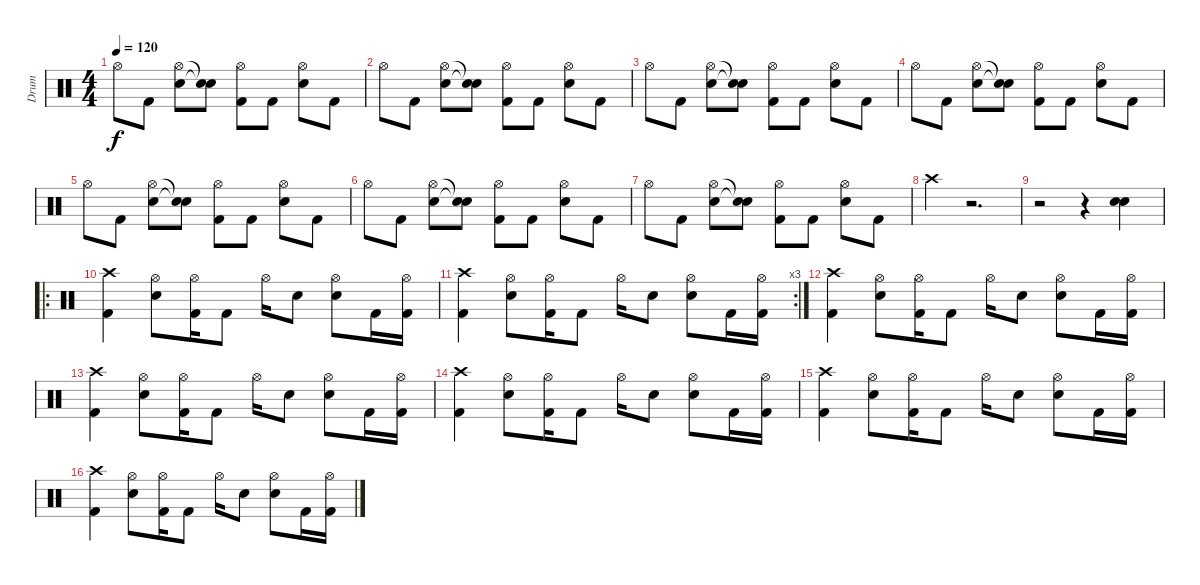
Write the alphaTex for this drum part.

\track ("Drum" "Drum") {instrument percussion}
\staff {score}
\articulation defaults
\ts (4 4)
\tempo 120
\clef neutral
\ks c "Hi-Hat (open)".8{dy f} "Kick (hit) 2".8
("Hi-Hat (open)" "Electric Snare (hit)").8 ("Snare (hit)"{t} "Snare (hit)"{t}).8 ("Hi-Hat (open)" "Kick (hit) 2").8 "Kick (hit) 2".8 ("Hi-Hat (open)" "Electric Snare (hit)").8 "Kick (hit) 2".8 |
"Hi-Hat (open)".8 "Kick (hit) 2".8 ("Hi-Hat (open)" "Electric Snare (hit)").8 ("Snare (hit)"{t} "Snare (hit)"{t}).8 ("Hi-Hat (open)" "Kick (hit) 2").8 "Kick (hit) 2".8 ("Hi-Hat (open)" "Electric Snare (hit)").8 "Kick (hit) 2".8 |
"Hi-Hat (open)".8 "Kick (hit) 2".8 ("Hi-Hat (open)" "Electric Snare (hit)").8 ("Snare (hit)"{t} "Snare (hit)"{t}).8 ("Hi-Hat (open)" "Kick (hit) 2").8 "Kick (hit) 2".8 ("Hi-Hat (open)" "Electric Snare (hit)").8 "Kick (hit) 2".8 |
"Hi-Hat (open)".8 "Kick (hit) 2".8 ("Hi-Hat (open)" "Electric Snare (hit)").8 ("Snare (hit)"{t} "Snare (hit)"{t}).8 ("Hi-Hat (open)" "Kick (hit) 2").8 "Kick (hit) 2".8 ("Hi-Hat (open)" "Electric Snare (hit)").8 "Kick (hit) 2".8 |
"Hi-Hat (open)".8 "Kick (hit) 2".8 ("Hi-Hat (open)" "Electric Snare (hit)").8 ("Snare (hit)"{t} "Snare (hit)"{t}).8 ("Hi-Hat (open)" "Kick (hit) 2").8 "Kick (hit) 2".8 ("Hi-Hat (open)" "Electric Snare (hit)").8 "Kick (hit) 2".8 |
"Hi-Hat (open)".8 "Kick (hit) 2".8 ("Hi-Hat (open)" "Electric Snare (hit)").8 ("Snare (hit)"{t} "Snare (hit)"{t}).8 ("Hi-Hat (open)" "Kick (hit) 2").8 "Kick (hit) 2".8 ("Hi-Hat (open)" "Electric Snare (hit)").8 "Kick (hit) 2".8 |
"Hi-Hat (open)".8 "Kick (hit) 2".8 ("Hi-Hat (open)" "Electric Snare (hit)").8 ("Snare (hit)"{t} "Snare (hit)"{t}).8 ("Hi-Hat (open)" "Kick (hit) 2").8 "Kick (hit) 2".8 ("Hi-Hat (open)" "Electric Snare (hit)").8 "Kick (hit) 2".8 |
"Crash high (hit)".4 r.2{d} |
r.2 r.4 ("Electric Snare (hit)" "Electric Snare (hit)").4 |
\ro
("Crash high (hit)" "Kick (hit) 2").4 ("Hi-Hat (open)" "Electric Snare (hit)").8 ("Hi-Hat (open)" "Kick (hit) 2").16 "Kick (hit) 2".8 "Hi-Hat (open)".16 "Electric Snare (hit)".8 ("Hi-Hat (open)" "Electric Snare (hit)").8 "Kick (hit) 2".16 ("Hi-Hat (open)" "Kick (hit) 2").16 |
\rc 3
("Crash high (hit)" "Kick (hit) 2").4 ("Hi-Hat (open)" "Electric Snare (hit)").8 ("Hi-Hat (open)" "Kick (hit) 2").16 "Kick (hit) 2".8 "Hi-Hat (open)".16 "Electric Snare (hit)".8 ("Hi-Hat (open)" "Electric Snare (hit)").8 "Kick (hit) 2".16 ("Hi-Hat (open)" "Kick (hit) 2").16 |
("Crash high (hit)" "Kick (hit) 2").4 ("Hi-Hat (open)" "Electric Snare (hit)").8 ("Hi-Hat (open)" "Kick (hit) 2").16 "Kick (hit) 2".8 "Hi-Hat (open)".16 "Electric Snare (hit)".8 ("Hi-Hat (open)" "Electric Snare (hit)").8 "Kick (hit) 2".16 ("Hi-Hat (open)" "Kick (hit) 2").16 |
("Crash high (hit)" "Kick (hit) 2").4 ("Hi-Hat (open)" "Electric Snare (hit)").8 ("Hi-Hat (open)" "Kick (hit) 2").16 "Kick (hit) 2".8 "Hi-Hat (open)".16 "Electric Snare (hit)".8 ("Hi-Hat (open)" "Electric Snare (hit)").8 "Kick (hit) 2".16 ("Hi-Hat (open)" "Kick (hit) 2").16 |
("Crash high (hit)" "Kick (hit) 2").4 ("Hi-Hat (open)" "Electric Snare (hit)").8 ("Hi-Hat (open)" "Kick (hit) 2").16 "Kick (hit) 2".8 "Hi-Hat (open)".16 "Electric Snare (hit)".8 ("Hi-Hat (open)" "Electric Snare (hit)").8 "Kick (hit) 2".16 ("Hi-Hat (open)" "Kick (hit) 2").16 |
("Crash high (hit)" "Kick (hit) 2").4 ("Hi-Hat (open)" "Electric Snare (hit)").8 ("Hi-Hat (open)" "Kick (hit) 2").16 "Kick (hit) 2".8 "Hi-Hat (open)".16 "Electric Snare (hit)".8 ("Hi-Hat (open)" "Electric Snare (hit)").8 "Kick (hit) 2".16 ("Hi-Hat (open)" "Kick (hit) 2").16 |
("Crash high (hit)" "Kick (hit) 2").4 ("Hi-Hat (open)" "Electric Snare (hit)").8 ("Hi-Hat (open)" "Kick (hit) 2").16 "Kick (hit) 2".8 "Hi-Hat (open)".16 "Electric Snare (hit)".8 ("Hi-Hat (open)" "Electric Snare (hit)").8 "Kick (hit) 2".16 ("Hi-Hat (open)" "Kick (hit) 2").16
